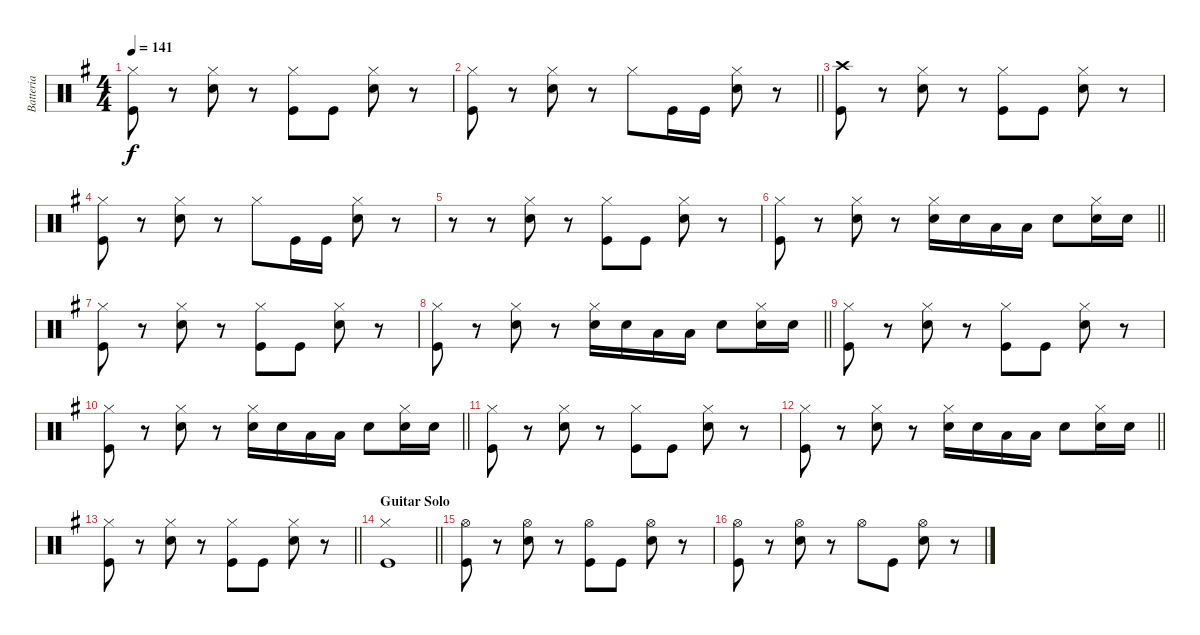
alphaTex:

\track ("Batteria" "Batteria") {instrument percussion}
\staff {score}
\articulation defaults
\ts (4 4)
\tempo 141
\clef neutral
\ks eminor
("Hi-Hat (closed)" "Kick (hit)").8{dy f} r.8 ("Hi-Hat (closed)" "Electric Snare (hit)").8 r.8 ("Hi-Hat (closed)" "Kick (hit)").8 "Kick (hit)".8 ("Hi-Hat (closed)" "Electric Snare (hit)").8 r.8 |
\barLineRight lightlight
("Hi-Hat (closed)" "Kick (hit)").8 r.8 ("Hi-Hat (closed)" "Electric Snare (hit)").8 r.8 "Hi-Hat (closed)".8 "Kick (hit)".16 "Kick (hit)".16 ("Hi-Hat (closed)" "Electric Snare (hit)").8 r.8 |
("Crash high (hit)" "Kick (hit)").8 r.8 ("Hi-Hat (closed)" "Electric Snare (hit)").8 r.8 ("Hi-Hat (closed)" "Kick (hit)").8 "Kick (hit)".8 ("Hi-Hat (closed)" "Electric Snare (hit)").8 r.8 |
("Hi-Hat (closed)" "Kick (hit)").8 r.8 ("Hi-Hat (closed)" "Electric Snare (hit)").8 r.8 "Hi-Hat (closed)".8 "Kick (hit)".16 "Kick (hit)".16 ("Hi-Hat (closed)" "Electric Snare (hit)").8 r.8 |
r.8 r.8 ("Hi-Hat (closed)" "Electric Snare (hit)").8 r.8 ("Hi-Hat (closed)" "Kick (hit)").8 "Kick (hit)".8 ("Hi-Hat (closed)" "Electric Snare (hit)").8 r.8 |
\barLineRight lightlight
("Hi-Hat (closed)" "Kick (hit)").8 r.8 ("Hi-Hat (closed)" "Electric Snare (hit)").8 r.8 ("Hi-Hat (closed)" "Electric Snare (hit)").16 "Electric Snare (hit)".16 "Low Tom (hit)".16 "Low Tom (hit)".16 "Electric Snare (hit)".8 ("Hi-Hat (closed)" "Electric Snare (hit)").16 "Electric Snare (hit)".16 |
("Hi-Hat (closed)" "Kick (hit)").8 r.8 ("Hi-Hat (closed)" "Electric Snare (hit)").8 r.8 ("Hi-Hat (closed)" "Kick (hit)").8 "Kick (hit)".8 ("Hi-Hat (closed)" "Electric Snare (hit)").8 r.8 |
\barLineRight lightlight
("Hi-Hat (closed)" "Kick (hit)").8 r.8 ("Hi-Hat (closed)" "Electric Snare (hit)").8 r.8 ("Hi-Hat (closed)" "Electric Snare (hit)").16 "Electric Snare (hit)".16 "Low Tom (hit)".16 "Low Tom (hit)".16 "Electric Snare (hit)".8 ("Hi-Hat (closed)" "Electric Snare (hit)").16 "Electric Snare (hit)".16 |
("Hi-Hat (closed)" "Kick (hit)").8 r.8 ("Hi-Hat (closed)" "Electric Snare (hit)").8 r.8 ("Hi-Hat (closed)" "Kick (hit)").8 "Kick (hit)".8 ("Hi-Hat (closed)" "Electric Snare (hit)").8 r.8 |
\barLineRight lightlight
("Hi-Hat (closed)" "Kick (hit)").8 r.8 ("Hi-Hat (closed)" "Electric Snare (hit)").8 r.8 ("Hi-Hat (closed)" "Electric Snare (hit)").16 "Electric Snare (hit)".16 "Low Tom (hit)".16 "Low Tom (hit)".16 "Electric Snare (hit)".8 ("Hi-Hat (closed)" "Electric Snare (hit)").16 "Electric Snare (hit)".16 |
("Hi-Hat (closed)" "Kick (hit)").8 r.8 ("Hi-Hat (closed)" "Electric Snare (hit)").8 r.8 ("Hi-Hat (closed)" "Kick (hit)").8 "Kick (hit)".8 ("Hi-Hat (closed)" "Electric Snare (hit)").8 r.8 |
\barLineRight lightlight
("Hi-Hat (closed)" "Kick (hit)").8 r.8 ("Hi-Hat (closed)" "Electric Snare (hit)").8 r.8 ("Hi-Hat (closed)" "Electric Snare (hit)").16 "Electric Snare (hit)".16 "Low Tom (hit)".16 "Low Tom (hit)".16 "Electric Snare (hit)".8 ("Hi-Hat (closed)" "Electric Snare (hit)").16 "Electric Snare (hit)".16 |
\barLineRight lightlight
("Hi-Hat (closed)" "Kick (hit)").8 r.8 ("Hi-Hat (closed)" "Electric Snare (hit)").8 r.8 ("Hi-Hat (closed)" "Kick (hit)").8 "Kick (hit)".8 ("Hi-Hat (closed)" "Electric Snare (hit)").8 r.8 |
\section ("" "Guitar Solo")
\barLineRight lightlight
("Hi-Hat (closed)" "Kick (hit)").1 |
("Hi-Hat (open)" "Kick (hit)").8 r.8 ("Hi-Hat (open)" "Electric Snare (hit)").8 r.8 ("Hi-Hat (open)" "Kick (hit)").8 "Kick (hit)".8 ("Hi-Hat (open)" "Electric Snare (hit)").8 r.8 |
("Hi-Hat (open)" "Kick (hit)").8 r.8 ("Hi-Hat (open)" "Electric Snare (hit)").8 r.8 "Hi-Hat (open)".8 "Kick (hit)".8 ("Hi-Hat (open)" "Electric Snare (hit)").8 r.8
